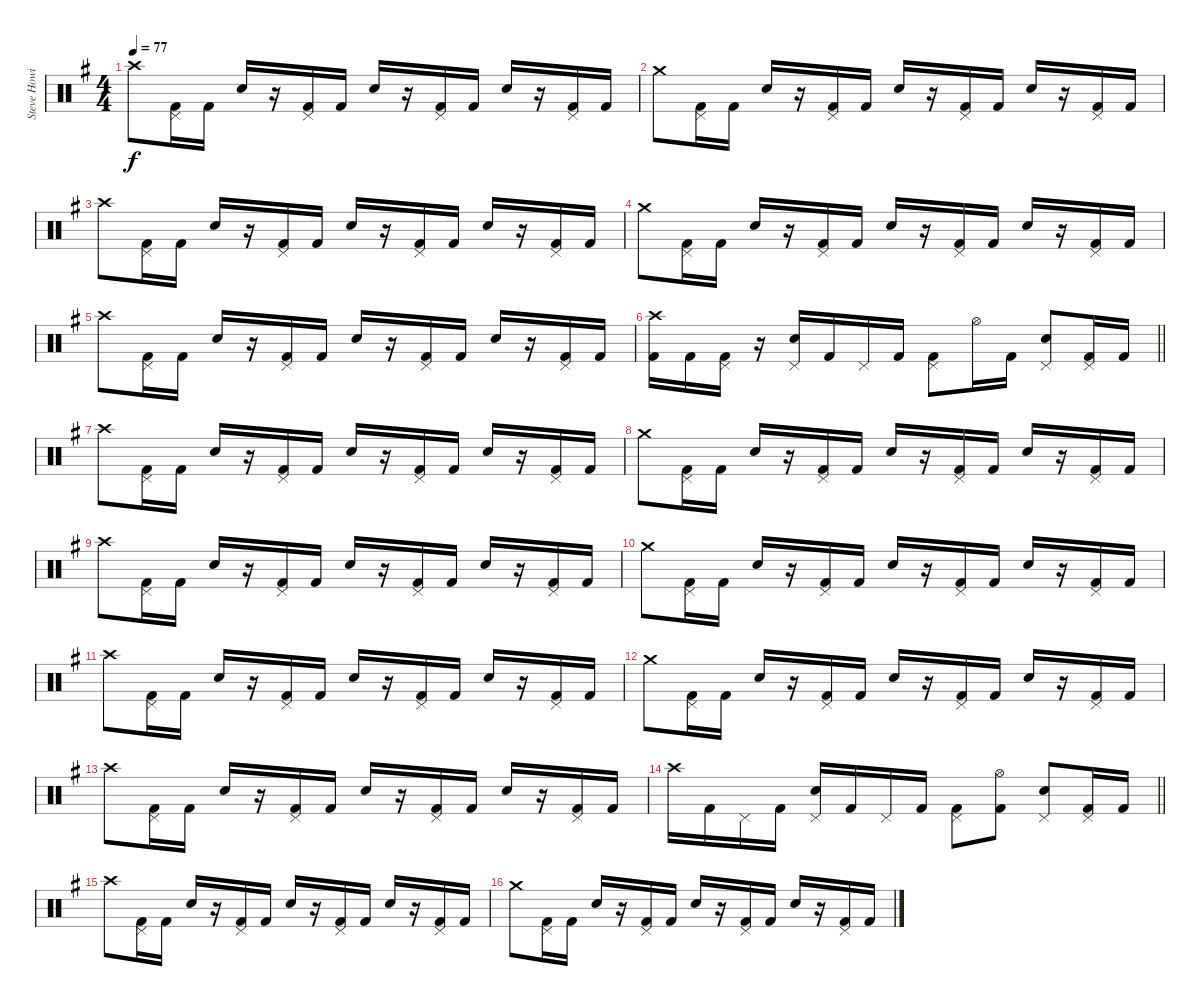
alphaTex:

\track ("Steve Howie" "Steve Howi") {instrument percussion}
\staff {score}
\articulation defaults
\ts (4 4)
\tempo 77
\clef neutral
\ks g "Crash high (hit)".8{dy f}
("Pedal Hi-Hat (hit)" "Kick (hit) 2").16 "Kick (hit) 2".16 "Electric Snare (hit)".16 r.16 ("Pedal Hi-Hat (hit)" "Kick (hit) 2").16 "Kick (hit) 2".16 "Electric Snare (hit)".16 r.16 ("Pedal Hi-Hat (hit)" "Kick (hit) 2").16 "Kick (hit) 2".16 "Electric Snare (hit)".16 r.16 ("Pedal Hi-Hat (hit)" "Kick (hit) 2").16 "Kick (hit) 2".16 |
"Crash medium (hit)".8 ("Pedal Hi-Hat (hit)" "Kick (hit) 2").16 "Kick (hit) 2".16 "Electric Snare (hit)".16 r.16 ("Pedal Hi-Hat (hit)" "Kick (hit) 2").16 "Kick (hit) 2".16 "Electric Snare (hit)".16 r.16 ("Pedal Hi-Hat (hit)" "Kick (hit) 2").16 "Kick (hit) 2".16 "Electric Snare (hit)".16 r.16 ("Pedal Hi-Hat (hit)" "Kick (hit) 2").16 "Kick (hit) 2".16 |
"Crash high (hit)".8 ("Pedal Hi-Hat (hit)" "Kick (hit) 2").16 "Kick (hit) 2".16 "Electric Snare (hit)".16 r.16 ("Pedal Hi-Hat (hit)" "Kick (hit) 2").16 "Kick (hit) 2".16 "Electric Snare (hit)".16 r.16 ("Pedal Hi-Hat (hit)" "Kick (hit) 2").16 "Kick (hit) 2".16 "Electric Snare (hit)".16 r.16 ("Pedal Hi-Hat (hit)" "Kick (hit) 2").16 "Kick (hit) 2".16 |
"Crash medium (hit)".8 ("Pedal Hi-Hat (hit)" "Kick (hit) 2").16 "Kick (hit) 2".16 "Electric Snare (hit)".16 r.16 ("Pedal Hi-Hat (hit)" "Kick (hit) 2").16 "Kick (hit) 2".16 "Electric Snare (hit)".16 r.16 ("Pedal Hi-Hat (hit)" "Kick (hit) 2").16 "Kick (hit) 2".16 "Electric Snare (hit)".16 r.16 ("Pedal Hi-Hat (hit)" "Kick (hit) 2").16 "Kick (hit) 2".16 |
"Crash high (hit)".8 ("Pedal Hi-Hat (hit)" "Kick (hit) 2").16 "Kick (hit) 2".16 "Electric Snare (hit)".16 r.16 ("Pedal Hi-Hat (hit)" "Kick (hit) 2").16 "Kick (hit) 2".16 "Electric Snare (hit)".16 r.16 ("Pedal Hi-Hat (hit)" "Kick (hit) 2").16 "Kick (hit) 2".16 "Electric Snare (hit)".16 r.16 ("Pedal Hi-Hat (hit)" "Kick (hit) 2").16 "Kick (hit) 2".16 |
\barLineRight lightlight
("Crash high (hit)" "Kick (hit) 2").16 "Kick (hit) 2".16 ("Pedal Hi-Hat (hit)" "Kick (hit) 2").16 r.16 ("Pedal Hi-Hat (hit)" "Electric Snare (hit)").16 "Kick (hit) 2".16 "Pedal Hi-Hat (hit)".16 "Kick (hit) 2".16 ("Pedal Hi-Hat (hit)" "Kick (hit) 2").8 "Hi-Hat (open)".16 "Kick (hit) 2".16 ("Pedal Hi-Hat (hit)" "Electric Snare (hit)").8 ("Pedal Hi-Hat (hit)" "Kick (hit) 2").16 "Kick (hit) 2".16 |
"Crash high (hit)".8 ("Pedal Hi-Hat (hit)" "Kick (hit) 2").16 "Kick (hit) 2".16 "Electric Snare (hit)".16 r.16 ("Pedal Hi-Hat (hit)" "Kick (hit) 2").16 "Kick (hit) 2".16 "Electric Snare (hit)".16 r.16 ("Pedal Hi-Hat (hit)" "Kick (hit) 2").16 "Kick (hit) 2".16 "Electric Snare (hit)".16 r.16 ("Pedal Hi-Hat (hit)" "Kick (hit) 2").16 "Kick (hit) 2".16 |
"Crash medium (hit)".8 ("Pedal Hi-Hat (hit)" "Kick (hit) 2").16 "Kick (hit) 2".16 "Electric Snare (hit)".16 r.16 ("Pedal Hi-Hat (hit)" "Kick (hit) 2").16 "Kick (hit) 2".16 "Electric Snare (hit)".16 r.16 ("Pedal Hi-Hat (hit)" "Kick (hit) 2").16 "Kick (hit) 2".16 "Electric Snare (hit)".16 r.16 ("Pedal Hi-Hat (hit)" "Kick (hit) 2").16 "Kick (hit) 2".16 |
"Crash high (hit)".8 ("Pedal Hi-Hat (hit)" "Kick (hit) 2").16 "Kick (hit) 2".16 "Electric Snare (hit)".16 r.16 ("Pedal Hi-Hat (hit)" "Kick (hit) 2").16 "Kick (hit) 2".16 "Electric Snare (hit)".16 r.16 ("Pedal Hi-Hat (hit)" "Kick (hit) 2").16 "Kick (hit) 2".16 "Electric Snare (hit)".16 r.16 ("Pedal Hi-Hat (hit)" "Kick (hit) 2").16 "Kick (hit) 2".16 |
"Crash medium (hit)".8 ("Pedal Hi-Hat (hit)" "Kick (hit) 2").16 "Kick (hit) 2".16 "Electric Snare (hit)".16 r.16 ("Pedal Hi-Hat (hit)" "Kick (hit) 2").16 "Kick (hit) 2".16 "Electric Snare (hit)".16 r.16 ("Pedal Hi-Hat (hit)" "Kick (hit) 2").16 "Kick (hit) 2".16 "Electric Snare (hit)".16 r.16 ("Pedal Hi-Hat (hit)" "Kick (hit) 2").16 "Kick (hit) 2".16 |
"Crash high (hit)".8 ("Pedal Hi-Hat (hit)" "Kick (hit) 2").16 "Kick (hit) 2".16 "Electric Snare (hit)".16 r.16 ("Pedal Hi-Hat (hit)" "Kick (hit) 2").16 "Kick (hit) 2".16 "Electric Snare (hit)".16 r.16 ("Pedal Hi-Hat (hit)" "Kick (hit) 2").16 "Kick (hit) 2".16 "Electric Snare (hit)".16 r.16 ("Pedal Hi-Hat (hit)" "Kick (hit) 2").16 "Kick (hit) 2".16 |
"Crash medium (hit)".8 ("Pedal Hi-Hat (hit)" "Kick (hit) 2").16 "Kick (hit) 2".16 "Electric Snare (hit)".16 r.16 ("Pedal Hi-Hat (hit)" "Kick (hit) 2").16 "Kick (hit) 2".16 "Electric Snare (hit)".16 r.16 ("Pedal Hi-Hat (hit)" "Kick (hit) 2").16 "Kick (hit) 2".16 "Electric Snare (hit)".16 r.16 ("Pedal Hi-Hat (hit)" "Kick (hit) 2").16 "Kick (hit) 2".16 |
"Crash high (hit)".8 ("Pedal Hi-Hat (hit)" "Kick (hit) 2").16 "Kick (hit) 2".16 "Electric Snare (hit)".16 r.16 ("Pedal Hi-Hat (hit)" "Kick (hit) 2").16 "Kick (hit) 2".16 "Electric Snare (hit)".16 r.16 ("Pedal Hi-Hat (hit)" "Kick (hit) 2").16 "Kick (hit) 2".16 "Electric Snare (hit)".16 r.16 ("Pedal Hi-Hat (hit)" "Kick (hit) 2").16 "Kick (hit) 2".16 |
\barLineRight lightlight "Crash high (hit)".16 "Kick (hit) 2".16 "Pedal Hi-Hat (hit)".16 "Kick (hit) 2".16
("Pedal Hi-Hat (hit)" "Electric Snare (hit)").16 "Kick (hit) 2".16 "Pedal Hi-Hat (hit)".16 "Kick (hit) 2".16 ("Pedal Hi-Hat (hit)" "Kick (hit) 2").8 ("Hi-Hat (open)" "Kick (hit) 2").8 ("Pedal Hi-Hat (hit)" "Electric Snare (hit)").8 ("Pedal Hi-Hat (hit)" "Kick (hit) 2").16 "Kick (hit) 2".16 |
"Crash high (hit)".8 ("Pedal Hi-Hat (hit)" "Kick (hit) 2").16 "Kick (hit) 2".16 "Electric Snare (hit)".16 r.16 ("Pedal Hi-Hat (hit)" "Kick (hit) 2").16 "Kick (hit) 2".16 "Electric Snare (hit)".16 r.16 ("Pedal Hi-Hat (hit)" "Kick (hit) 2").16 "Kick (hit) 2".16 "Electric Snare (hit)".16 r.16 ("Pedal Hi-Hat (hit)" "Kick (hit) 2").16 "Kick (hit) 2".16 |
"Crash medium (hit)".8 ("Pedal Hi-Hat (hit)" "Kick (hit) 2").16 "Kick (hit) 2".16 "Electric Snare (hit)".16 r.16 ("Pedal Hi-Hat (hit)" "Kick (hit) 2").16 "Kick (hit) 2".16 "Electric Snare (hit)".16 r.16 ("Pedal Hi-Hat (hit)" "Kick (hit) 2").16 "Kick (hit) 2".16 "Electric Snare (hit)".16 r.16 ("Pedal Hi-Hat (hit)" "Kick (hit) 2").16 "Kick (hit) 2".16
